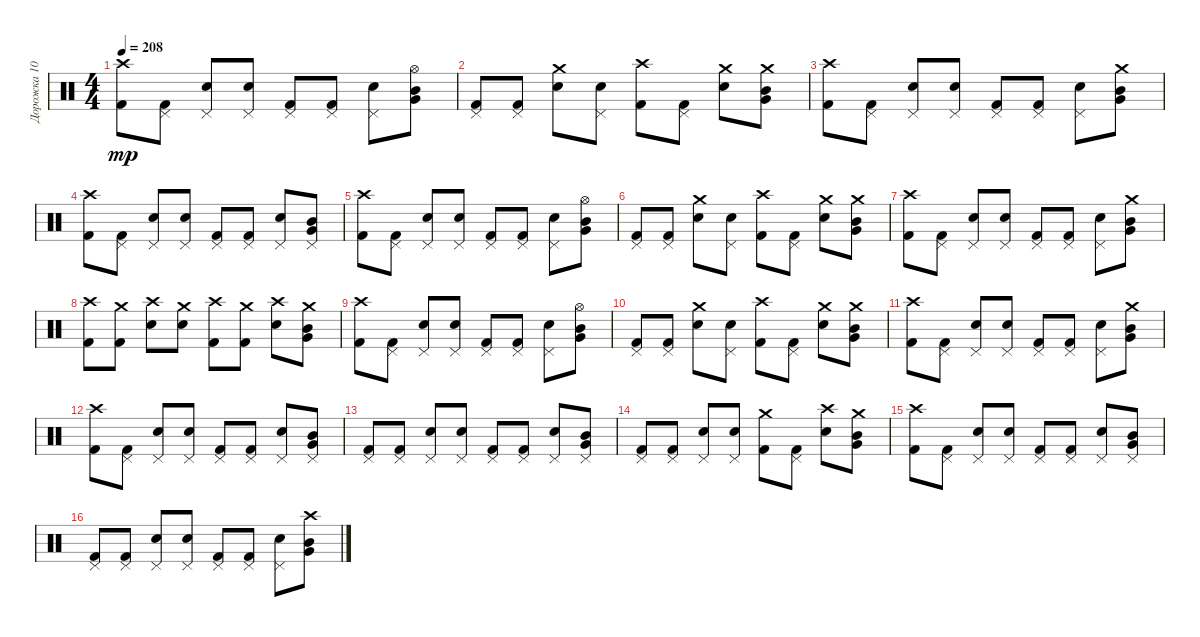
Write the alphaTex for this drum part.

\track ("Дорожка 10" "Дорожка 10") {instrument percussion}
\staff {score}
\articulation defaults
\ts (4 4)
\tempo 208
\clef neutral
\ks c
("Kick (hit) 2" "Crash high (hit)").8{dy mp} ("Kick (hit) 2" "Pedal Hi-Hat (hit)").8 ("Snare (hit) 2" "Pedal Hi-Hat (hit)").8 ("Snare (hit) 2" "Pedal Hi-Hat (hit)").8 ("Kick (hit) 2" "Pedal Hi-Hat (hit)").8 ("Kick (hit) 2" "Pedal Hi-Hat (hit)").8 ("Snare (hit) 2" "Pedal Hi-Hat (hit)").8 ("Mid Tom (hit)" "Very Low Tom (hit)" "Hi-Hat (open)").8 |
("Kick (hit) 2" "Pedal Hi-Hat (hit)").8 ("Kick (hit) 2" "Pedal Hi-Hat (hit)").8 ("Snare (hit) 2" "Crash medium (hit)").8 ("Snare (hit) 2" "Pedal Hi-Hat (hit)").8 ("Kick (hit) 2" "Crash high (hit)").8 ("Kick (hit) 2" "Pedal Hi-Hat (hit)").8 ("Snare (hit) 2" "Crash medium (hit)").8 ("Mid Tom (hit)" "Very Low Tom (hit)" "Crash medium (hit)").8 |
("Kick (hit) 2" "Crash high (hit)").8 ("Kick (hit) 2" "Pedal Hi-Hat (hit)").8 ("Snare (hit) 2" "Pedal Hi-Hat (hit)").8 ("Snare (hit) 2" "Pedal Hi-Hat (hit)").8 ("Kick (hit) 2" "Pedal Hi-Hat (hit)").8 ("Kick (hit) 2" "Pedal Hi-Hat (hit)").8 ("Snare (hit) 2" "Pedal Hi-Hat (hit)").8 ("Mid Tom (hit)" "Very Low Tom (hit)" "Crash medium (hit)").8 |
("Kick (hit) 2" "Crash high (hit)").8 ("Kick (hit) 2" "Pedal Hi-Hat (hit)").8 ("Snare (hit) 2" "Pedal Hi-Hat (hit)").8 ("Snare (hit) 2" "Pedal Hi-Hat (hit)").8 ("Kick (hit) 2" "Pedal Hi-Hat (hit)").8 ("Kick (hit) 2" "Pedal Hi-Hat (hit)").8 ("Snare (hit) 2" "Pedal Hi-Hat (hit)").8 ("Mid Tom (hit)" "Very Low Tom (hit)" "Pedal Hi-Hat (hit)").8 |
("Kick (hit) 2" "Crash high (hit)").8 ("Kick (hit) 2" "Pedal Hi-Hat (hit)").8 ("Snare (hit) 2" "Pedal Hi-Hat (hit)").8 ("Snare (hit) 2" "Pedal Hi-Hat (hit)").8 ("Kick (hit) 2" "Pedal Hi-Hat (hit)").8 ("Kick (hit) 2" "Pedal Hi-Hat (hit)").8 ("Snare (hit) 2" "Pedal Hi-Hat (hit)").8 ("Mid Tom (hit)" "Very Low Tom (hit)" "Hi-Hat (open)").8 |
("Kick (hit) 2" "Pedal Hi-Hat (hit)").8 ("Kick (hit) 2" "Pedal Hi-Hat (hit)").8 ("Snare (hit) 2" "Crash medium (hit)").8 ("Snare (hit) 2" "Pedal Hi-Hat (hit)").8 ("Kick (hit) 2" "Crash high (hit)").8 ("Kick (hit) 2" "Pedal Hi-Hat (hit)").8 ("Snare (hit) 2" "Crash medium (hit)").8 ("Mid Tom (hit)" "Very Low Tom (hit)" "Crash medium (hit)").8 |
("Kick (hit) 2" "Crash high (hit)").8 ("Kick (hit) 2" "Pedal Hi-Hat (hit)").8 ("Snare (hit) 2" "Pedal Hi-Hat (hit)").8 ("Snare (hit) 2" "Pedal Hi-Hat (hit)").8 ("Kick (hit) 2" "Pedal Hi-Hat (hit)").8 ("Kick (hit) 2" "Pedal Hi-Hat (hit)").8 ("Snare (hit) 2" "Pedal Hi-Hat (hit)").8 ("Mid Tom (hit)" "Very Low Tom (hit)" "Crash medium (hit)").8 |
("Kick (hit) 2" "Crash high (hit)").8 ("Kick (hit) 2" "Crash medium (hit)").8 ("Snare (hit) 2" "Crash high (hit)").8 ("Snare (hit) 2" "Crash medium (hit)").8 ("Kick (hit) 2" "Crash high (hit)").8 ("Kick (hit) 2" "Crash medium (hit)").8 ("Snare (hit) 2" "Crash high (hit)").8 ("Mid Tom (hit)" "Very Low Tom (hit)" "Crash medium (hit)").8 |
("Kick (hit) 2" "Crash high (hit)").8 ("Kick (hit) 2" "Pedal Hi-Hat (hit)").8 ("Snare (hit) 2" "Pedal Hi-Hat (hit)").8 ("Snare (hit) 2" "Pedal Hi-Hat (hit)").8 ("Kick (hit) 2" "Pedal Hi-Hat (hit)").8 ("Kick (hit) 2" "Pedal Hi-Hat (hit)").8 ("Snare (hit) 2" "Pedal Hi-Hat (hit)").8 ("Mid Tom (hit)" "Very Low Tom (hit)" "Hi-Hat (open)").8 |
("Kick (hit) 2" "Pedal Hi-Hat (hit)").8 ("Kick (hit) 2" "Pedal Hi-Hat (hit)").8 ("Snare (hit) 2" "Crash medium (hit)").8 ("Snare (hit) 2" "Pedal Hi-Hat (hit)").8 ("Kick (hit) 2" "Crash high (hit)").8 ("Kick (hit) 2" "Pedal Hi-Hat (hit)").8 ("Snare (hit) 2" "Crash medium (hit)").8 ("Mid Tom (hit)" "Very Low Tom (hit)" "Crash medium (hit)").8 |
("Kick (hit) 2" "Crash high (hit)").8 ("Kick (hit) 2" "Pedal Hi-Hat (hit)").8 ("Snare (hit) 2" "Pedal Hi-Hat (hit)").8 ("Snare (hit) 2" "Pedal Hi-Hat (hit)").8 ("Kick (hit) 2" "Pedal Hi-Hat (hit)").8 ("Kick (hit) 2" "Pedal Hi-Hat (hit)").8 ("Snare (hit) 2" "Pedal Hi-Hat (hit)").8 ("Mid Tom (hit)" "Very Low Tom (hit)" "Crash medium (hit)").8 |
("Kick (hit) 2" "Crash high (hit)").8 ("Kick (hit) 2" "Pedal Hi-Hat (hit)").8 ("Snare (hit) 2" "Pedal Hi-Hat (hit)").8 ("Snare (hit) 2" "Pedal Hi-Hat (hit)").8 ("Kick (hit) 2" "Pedal Hi-Hat (hit)").8 ("Kick (hit) 2" "Pedal Hi-Hat (hit)").8 ("Snare (hit) 2" "Pedal Hi-Hat (hit)").8 ("Mid Tom (hit)" "Very Low Tom (hit)" "Pedal Hi-Hat (hit)").8 |
("Kick (hit) 2" "Pedal Hi-Hat (hit)").8 ("Kick (hit) 2" "Pedal Hi-Hat (hit)").8 ("Snare (hit) 2" "Pedal Hi-Hat (hit)").8 ("Snare (hit) 2" "Pedal Hi-Hat (hit)").8 ("Kick (hit) 2" "Pedal Hi-Hat (hit)").8 ("Kick (hit) 2" "Pedal Hi-Hat (hit)").8 ("Snare (hit) 2" "Pedal Hi-Hat (hit)").8 ("Mid Tom (hit)" "Very Low Tom (hit)" "Pedal Hi-Hat (hit)").8 |
("Kick (hit) 2" "Pedal Hi-Hat (hit)").8 ("Kick (hit) 2" "Pedal Hi-Hat (hit)").8 ("Snare (hit) 2" "Pedal Hi-Hat (hit)").8 ("Snare (hit) 2" "Pedal Hi-Hat (hit)").8 ("Kick (hit) 2" "Crash medium (hit)").8 ("Kick (hit) 2" "Pedal Hi-Hat (hit)").8 ("Snare (hit) 2" "Crash high (hit)").8 ("Mid Tom (hit)" "Very Low Tom (hit)" "Crash medium (hit)").8 |
("Kick (hit) 2" "Crash high (hit)").8 ("Kick (hit) 2" "Pedal Hi-Hat (hit)").8 ("Snare (hit) 2" "Pedal Hi-Hat (hit)").8 ("Snare (hit) 2" "Pedal Hi-Hat (hit)").8 ("Kick (hit) 2" "Pedal Hi-Hat (hit)").8 ("Kick (hit) 2" "Pedal Hi-Hat (hit)").8 ("Snare (hit) 2" "Pedal Hi-Hat (hit)").8 ("Mid Tom (hit)" "Very Low Tom (hit)" "Pedal Hi-Hat (hit)").8 |
("Kick (hit) 2" "Pedal Hi-Hat (hit)").8 ("Kick (hit) 2" "Pedal Hi-Hat (hit)").8 ("Snare (hit) 2" "Pedal Hi-Hat (hit)").8 ("Snare (hit) 2" "Pedal Hi-Hat (hit)").8 ("Kick (hit) 2" "Pedal Hi-Hat (hit)").8 ("Kick (hit) 2" "Pedal Hi-Hat (hit)").8 ("Snare (hit) 2" "Pedal Hi-Hat (hit)").8 ("Mid Tom (hit)" "Very Low Tom (hit)" "Crash high (hit)").8
